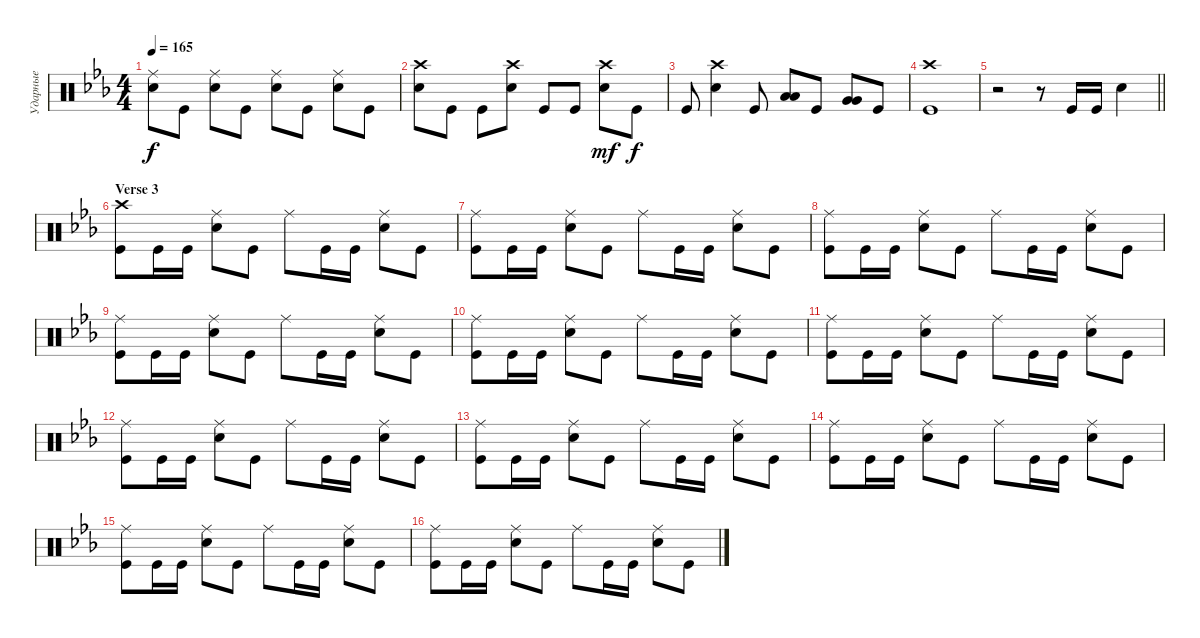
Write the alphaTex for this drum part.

\track ("Ударные" "Ударные") {instrument percussion}
\staff {score}
\articulation defaults
\ts (4 4)
\tempo 165
\clef neutral
\ks cminor
("Snare (hit) 2" "Ride (middle)").8{dy f} "Kick (hit)".8 ("Snare (hit) 2" "Ride (middle)").8 "Kick (hit)".8 ("Snare (hit) 2" "Ride (middle)").8 "Kick (hit)".8 ("Snare (hit) 2" "Ride (middle)").8 "Kick (hit)".8 |
("Snare (hit) 2" "Crash high (hit)").8 "Kick (hit)".8 "Kick (hit)".8 ("Snare (hit) 2" "Crash high (hit)").8 "Kick (hit)".8 "Kick (hit)".8 ("Snare (hit) 2" "Crash high (hit)").8{dy mf} "Kick (hit)".8{dy f} |
"Kick (hit)".8 ("Snare (hit) 2" "Crash high (hit)").4 "Kick (hit)".8 ("Low Tom (hit)" "Low Tom (hit)").8{bd 240} "Kick (hit)".8 ("Very Low Tom (hit)" "Very Low Tom (hit)").8{bd 240} "Kick (hit)".8 |
("Kick (hit)" "Crash high (hit)").1 |
\barLineRight lightlight
r.2 r.8 "Kick (hit)".16 "Kick (hit)".16 "Snare (hit) 2".4 |
\section ("" "Verse 3")
("Kick (hit)" "Crash high (hit)").8 "Kick (hit)".16 "Kick (hit)".16 ("Snare (hit) 2" "Ride (middle)").8 "Kick (hit)".8 "Ride (middle)".8 "Kick (hit)".16 "Kick (hit)".16 ("Snare (hit) 2" "Ride (middle)").8 "Kick (hit)".8 |
("Kick (hit)" "Ride (middle)").8 "Kick (hit)".16 "Kick (hit)".16 ("Snare (hit) 2" "Ride (middle)").8 "Kick (hit)".8 "Ride (middle)".8 "Kick (hit)".16 "Kick (hit)".16 ("Snare (hit) 2" "Ride (middle)").8 "Kick (hit)".8 |
("Kick (hit)" "Ride (middle)").8 "Kick (hit)".16 "Kick (hit)".16 ("Snare (hit) 2" "Ride (middle)").8 "Kick (hit)".8 "Ride (middle)".8 "Kick (hit)".16 "Kick (hit)".16 ("Snare (hit) 2" "Ride (middle)").8 "Kick (hit)".8 |
("Kick (hit)" "Ride (middle)").8 "Kick (hit)".16 "Kick (hit)".16 ("Snare (hit) 2" "Ride (middle)").8 "Kick (hit)".8 "Ride (middle)".8 "Kick (hit)".16 "Kick (hit)".16 ("Snare (hit) 2" "Ride (middle)").8 "Kick (hit)".8 |
("Kick (hit)" "Ride (middle)").8 "Kick (hit)".16 "Kick (hit)".16 ("Snare (hit) 2" "Ride (middle)").8 "Kick (hit)".8 "Ride (middle)".8 "Kick (hit)".16 "Kick (hit)".16 ("Snare (hit) 2" "Ride (middle)").8 "Kick (hit)".8 |
("Kick (hit)" "Ride (middle)").8 "Kick (hit)".16 "Kick (hit)".16 ("Snare (hit) 2" "Ride (middle)").8 "Kick (hit)".8 "Ride (middle)".8 "Kick (hit)".16 "Kick (hit)".16 ("Snare (hit) 2" "Ride (middle)").8 "Kick (hit)".8 |
("Kick (hit)" "Ride (middle)").8 "Kick (hit)".16 "Kick (hit)".16 ("Snare (hit) 2" "Ride (middle)").8 "Kick (hit)".8 "Ride (middle)".8 "Kick (hit)".16 "Kick (hit)".16 ("Snare (hit) 2" "Ride (middle)").8 "Kick (hit)".8 |
("Kick (hit)" "Ride (middle)").8 "Kick (hit)".16 "Kick (hit)".16 ("Snare (hit) 2" "Ride (middle)").8 "Kick (hit)".8 "Ride (middle)".8 "Kick (hit)".16 "Kick (hit)".16 ("Snare (hit) 2" "Ride (middle)").8 "Kick (hit)".8 |
("Kick (hit)" "Ride (middle)").8 "Kick (hit)".16 "Kick (hit)".16 ("Snare (hit) 2" "Ride (middle)").8 "Kick (hit)".8 "Ride (middle)".8 "Kick (hit)".16 "Kick (hit)".16 ("Snare (hit) 2" "Ride (middle)").8 "Kick (hit)".8 |
("Kick (hit)" "Ride (middle)").8 "Kick (hit)".16 "Kick (hit)".16 ("Snare (hit) 2" "Ride (middle)").8 "Kick (hit)".8 "Ride (middle)".8 "Kick (hit)".16 "Kick (hit)".16 ("Snare (hit) 2" "Ride (middle)").8 "Kick (hit)".8 |
("Kick (hit)" "Ride (middle)").8 "Kick (hit)".16 "Kick (hit)".16 ("Snare (hit) 2" "Ride (middle)").8 "Kick (hit)".8 "Ride (middle)".8 "Kick (hit)".16 "Kick (hit)".16 ("Snare (hit) 2" "Ride (middle)").8 "Kick (hit)".8
